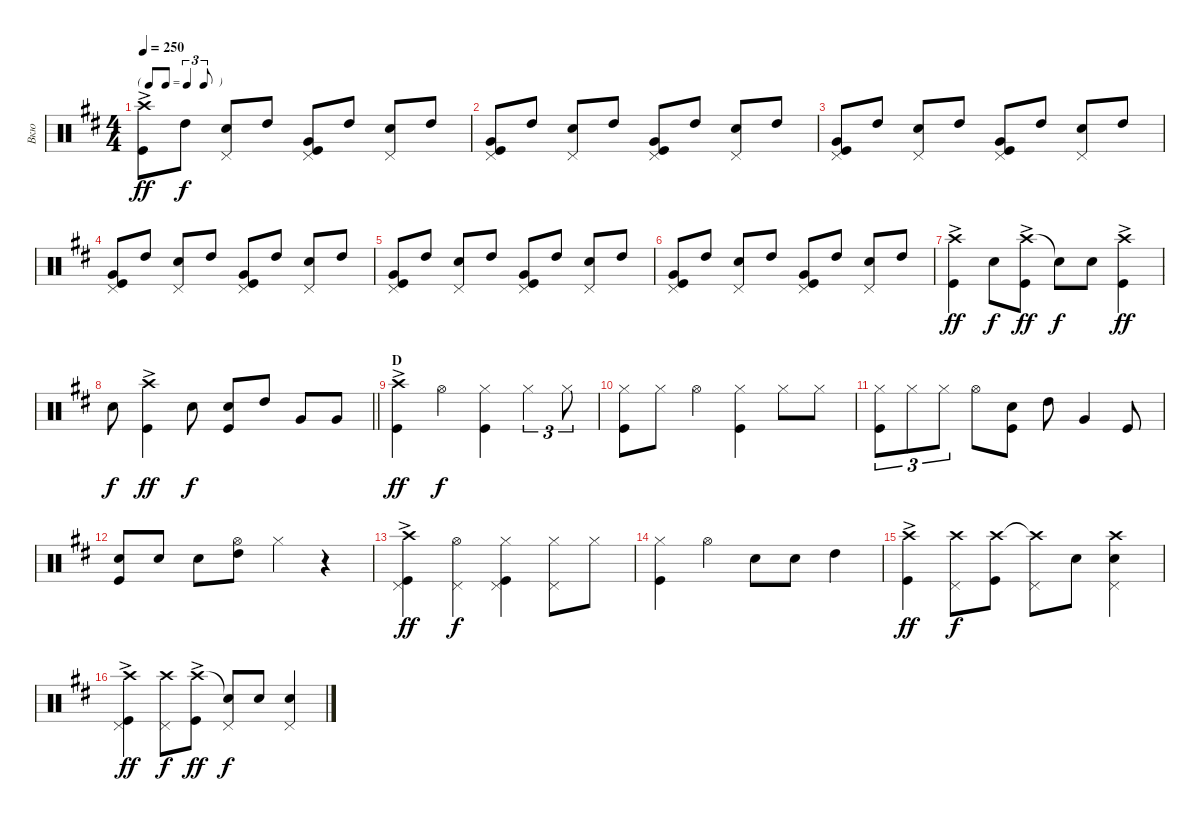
\track ("Вкю" "Вкю") {instrument percussion}
\staff {score}
\articulation defaults
\ts (4 4)
\tf triplet8th
\tempo 250
\clef neutral
\ks d
("Crash high (hit)"{ac} "Kick (hit)"{ac}).8{dy ff} "High Tom (hit)".8{dy f} ("Snare (hit) 2" "Pedal Hi-Hat (hit)").8 "High Tom (hit)".8 ("Very Low Tom (hit)" "Kick (hit)" "Pedal Hi-Hat (hit)").8 "High Tom (hit)".8 ("Snare (hit) 2" "Pedal Hi-Hat (hit)").8 "High Tom (hit)".8 |
("Very Low Tom (hit)" "Kick (hit)" "Pedal Hi-Hat (hit)").8 "High Tom (hit)".8 ("Snare (hit) 2" "Pedal Hi-Hat (hit)").8 "High Tom (hit)".8 ("Very Low Tom (hit)" "Kick (hit)" "Pedal Hi-Hat (hit)").8 "High Tom (hit)".8 ("Snare (hit) 2" "Pedal Hi-Hat (hit)").8 "High Tom (hit)".8 |
("Very Low Tom (hit)" "Kick (hit)" "Pedal Hi-Hat (hit)").8 "High Tom (hit)".8 ("Snare (hit) 2" "Pedal Hi-Hat (hit)").8 "High Tom (hit)".8 ("Very Low Tom (hit)" "Kick (hit)" "Pedal Hi-Hat (hit)").8 "High Tom (hit)".8 ("Snare (hit) 2" "Pedal Hi-Hat (hit)").8 "High Tom (hit)".8 |
("Very Low Tom (hit)" "Kick (hit)" "Pedal Hi-Hat (hit)").8 "High Tom (hit)".8 ("Snare (hit) 2" "Pedal Hi-Hat (hit)").8 "High Tom (hit)".8 ("Very Low Tom (hit)" "Kick (hit)" "Pedal Hi-Hat (hit)").8 "High Tom (hit)".8 ("Snare (hit) 2" "Pedal Hi-Hat (hit)").8 "High Tom (hit)".8 |
("Very Low Tom (hit)" "Kick (hit)" "Pedal Hi-Hat (hit)").8 "High Tom (hit)".8 ("Snare (hit) 2" "Pedal Hi-Hat (hit)").8 "High Tom (hit)".8 ("Very Low Tom (hit)" "Kick (hit)" "Pedal Hi-Hat (hit)").8 "High Tom (hit)".8 ("Snare (hit) 2" "Pedal Hi-Hat (hit)").8 "High Tom (hit)".8 |
("Very Low Tom (hit)" "Kick (hit)" "Pedal Hi-Hat (hit)").8 "High Tom (hit)".8 ("Snare (hit) 2" "Pedal Hi-Hat (hit)").8 "High Tom (hit)".8 ("Very Low Tom (hit)" "Kick (hit)" "Pedal Hi-Hat (hit)").8 "High Tom (hit)".8 ("Snare (hit) 2" "Pedal Hi-Hat (hit)").8 "High Tom (hit)".8 |
("Crash high (hit)"{ac} "Kick (hit)"{ac}).4{dy ff} "Snare (hit) 2".8{dy f} ("Crash high (hit)"{ac} "Kick (hit)"{ac}).8{dy ff} "Snare (hit)"{t}.8{dy f} "Snare (hit) 2".8 ("Crash high (hit)"{ac} "Kick (hit)"{ac}).4{dy ff} |
\barLineRight lightlight "Snare (hit) 2".8{dy f}
("Crash high (hit)"{ac} "Kick (hit)"{ac}).4{dy ff} "Snare (hit) 2".8{dy f} ("Snare (hit) 2" "Kick (hit)").8 "High Tom (hit)".8 "Very Low Tom (hit)".8 "Very Low Tom (hit)".8 |
\section ("" "D")
("Crash high (hit)"{ac} "Kick (hit)"{ac}).4{dy ff} "Hi-Hat (open)".4{dy f} ("Hi-Hat (closed)" "Kick (hit)").4 "Hi-Hat (closed)".4{tu (3 2)} "Hi-Hat (closed)".8{tu (3 2)} |
("Hi-Hat (closed)" "Kick (hit)").8 "Hi-Hat (closed)".8 "Hi-Hat (open)".4 ("Hi-Hat (closed)" "Kick (hit)").4 "Hi-Hat (closed)".8 "Hi-Hat (closed)".8 |
("Hi-Hat (closed)" "Kick (hit)").8{tu (3 2)} "Hi-Hat (closed)".8{tu (3 2)} "Hi-Hat (closed)".8{tu (3 2)} "Hi-Hat (open)".8 ("Snare (hit) 2" "Kick (hit)").8 "High Tom (hit)".8 "Very Low Tom (hit)".4 "Kick (hit)".8 |
("Snare (hit) 2" "Kick (hit)").8 "Snare (hit) 2".8 "Snare (hit) 2".8 ("Hi-Hat (open)" "High Tom (hit)").8 "Hi-Hat (closed)".4 r.4 |
("Crash high (hit)"{ac} "Kick (hit)"{ac} "Pedal Hi-Hat (hit)"{ac}).4{dy ff} ("Hi-Hat (open)" "Pedal Hi-Hat (hit)").4{dy f} ("Hi-Hat (closed)" "Kick (hit)" "Pedal Hi-Hat (hit)").4 ("Hi-Hat (closed)" "Pedal Hi-Hat (hit)").8 "Hi-Hat (closed)".8 |
("Hi-Hat (closed)" "Kick (hit)").4 "Hi-Hat (open)".4 "Snare (hit) 2".8 "Snare (hit) 2".8 "High Tom (hit)".4 |
("Crash high (hit)"{ac} "Kick (hit)"{ac}).4{dy ff} ("Crash high (hit)" "Pedal Hi-Hat (hit)").8{dy f} ("Crash high (hit)" "Kick (hit)").8 ("Crash high (hit)"{t} "Pedal Hi-Hat (hit)").8 "Snare (hit) 2".8 ("Crash high (hit)" "Snare (hit) 2" "Pedal Hi-Hat (hit)").4 |
("Crash high (hit)"{ac} "Kick (hit)"{ac} "Pedal Hi-Hat (hit)"{ac}).4{dy ff} ("Crash high (hit)" "Pedal Hi-Hat (hit)").8{dy f} ("Crash high (hit)"{ac} "Kick (hit)"{ac}).8{dy ff} ("Snare (hit)"{t} "Pedal Hi-Hat (hit)").8{dy f} "Snare (hit) 2".8 ("Snare (hit) 2" "Pedal Hi-Hat (hit)").4
